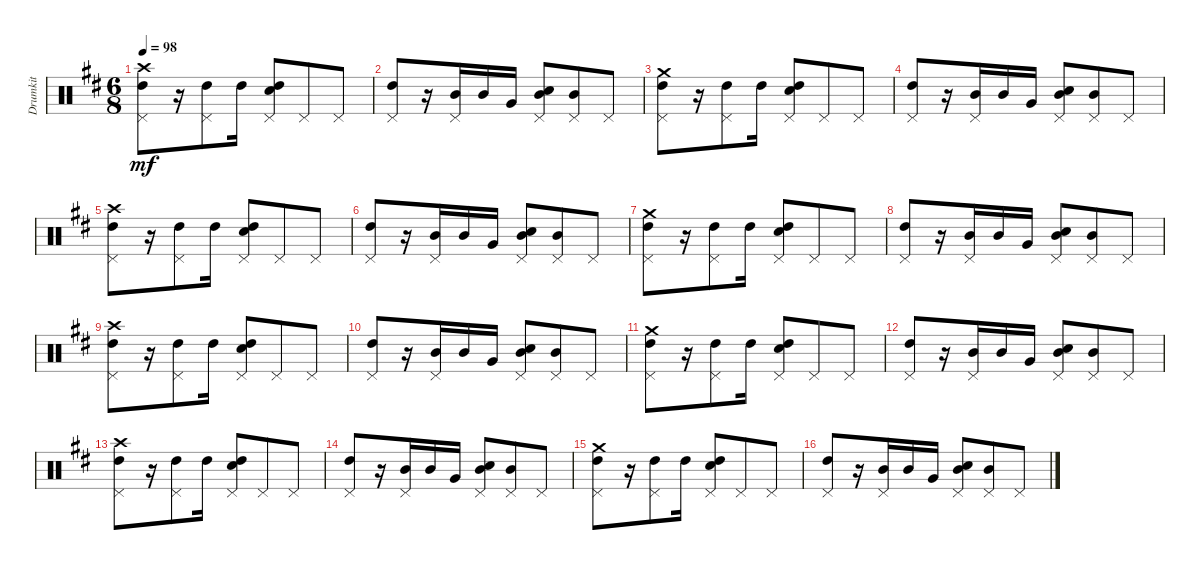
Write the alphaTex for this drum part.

\track ("Drumkit" "Drumkit") {instrument percussion}
\staff {score}
\articulation defaults
\ts (6 8)
\tempo 98
\clef neutral
\ks d
("High Tom (hit)" "Pedal Hi-Hat (hit)" "Crash high (hit)").8{dy mf} r.16 ("High Tom (hit)" "Pedal Hi-Hat (hit)").8 "High Tom (hit)".16 ("High Tom (hit)" "Snare (hit) 2" "Pedal Hi-Hat (hit)").8 "Pedal Hi-Hat (hit)".8 "Pedal Hi-Hat (hit)".8 |
("High Tom (hit)" "Pedal Hi-Hat (hit)").8 r.16 ("Mid Tom (hit)" "Pedal Hi-Hat (hit)").16 "Mid Tom (hit)".16 "Very Low Tom (hit)".16 ("Mid Tom (hit)" "Snare (hit) 2" "Pedal Hi-Hat (hit)").8 ("Mid Tom (hit)" "Pedal Hi-Hat (hit)").8 "Pedal Hi-Hat (hit)".8 |
("High Tom (hit)" "Pedal Hi-Hat (hit)" "Crash medium (hit)").8 r.16 ("High Tom (hit)" "Pedal Hi-Hat (hit)").8 "High Tom (hit)".16 ("High Tom (hit)" "Snare (hit) 2" "Pedal Hi-Hat (hit)").8 "Pedal Hi-Hat (hit)".8 "Pedal Hi-Hat (hit)".8 |
("High Tom (hit)" "Pedal Hi-Hat (hit)").8 r.16 ("Mid Tom (hit)" "Pedal Hi-Hat (hit)").16 "Mid Tom (hit)".16 "Very Low Tom (hit)".16 ("Mid Tom (hit)" "Snare (hit) 2" "Pedal Hi-Hat (hit)").8 ("Mid Tom (hit)" "Pedal Hi-Hat (hit)").8 "Pedal Hi-Hat (hit)".8 |
("High Tom (hit)" "Pedal Hi-Hat (hit)" "Crash high (hit)").8 r.16 ("High Tom (hit)" "Pedal Hi-Hat (hit)").8 "High Tom (hit)".16 ("High Tom (hit)" "Snare (hit) 2" "Pedal Hi-Hat (hit)").8 "Pedal Hi-Hat (hit)".8 "Pedal Hi-Hat (hit)".8 |
("High Tom (hit)" "Pedal Hi-Hat (hit)").8 r.16 ("Mid Tom (hit)" "Pedal Hi-Hat (hit)").16 "Mid Tom (hit)".16 "Very Low Tom (hit)".16 ("Mid Tom (hit)" "Snare (hit) 2" "Pedal Hi-Hat (hit)").8 ("Mid Tom (hit)" "Pedal Hi-Hat (hit)").8 "Pedal Hi-Hat (hit)".8 |
("High Tom (hit)" "Pedal Hi-Hat (hit)" "Crash medium (hit)").8 r.16 ("High Tom (hit)" "Pedal Hi-Hat (hit)").8 "High Tom (hit)".16 ("High Tom (hit)" "Snare (hit) 2" "Pedal Hi-Hat (hit)").8 "Pedal Hi-Hat (hit)".8 "Pedal Hi-Hat (hit)".8 |
("High Tom (hit)" "Pedal Hi-Hat (hit)").8 r.16 ("Mid Tom (hit)" "Pedal Hi-Hat (hit)").16 "Mid Tom (hit)".16 "Very Low Tom (hit)".16 ("Mid Tom (hit)" "Snare (hit) 2" "Pedal Hi-Hat (hit)").8 ("Mid Tom (hit)" "Pedal Hi-Hat (hit)").8 "Pedal Hi-Hat (hit)".8 |
("High Tom (hit)" "Pedal Hi-Hat (hit)" "Crash high (hit)").8 r.16 ("High Tom (hit)" "Pedal Hi-Hat (hit)").8 "High Tom (hit)".16 ("High Tom (hit)" "Snare (hit) 2" "Pedal Hi-Hat (hit)").8 "Pedal Hi-Hat (hit)".8 "Pedal Hi-Hat (hit)".8 |
("High Tom (hit)" "Pedal Hi-Hat (hit)").8 r.16 ("Mid Tom (hit)" "Pedal Hi-Hat (hit)").16 "Mid Tom (hit)".16 "Very Low Tom (hit)".16 ("Mid Tom (hit)" "Snare (hit) 2" "Pedal Hi-Hat (hit)").8 ("Mid Tom (hit)" "Pedal Hi-Hat (hit)").8 "Pedal Hi-Hat (hit)".8 |
("High Tom (hit)" "Pedal Hi-Hat (hit)" "Crash medium (hit)").8 r.16 ("High Tom (hit)" "Pedal Hi-Hat (hit)").8 "High Tom (hit)".16 ("High Tom (hit)" "Snare (hit) 2" "Pedal Hi-Hat (hit)").8 "Pedal Hi-Hat (hit)".8 "Pedal Hi-Hat (hit)".8 |
("High Tom (hit)" "Pedal Hi-Hat (hit)").8 r.16 ("Mid Tom (hit)" "Pedal Hi-Hat (hit)").16 "Mid Tom (hit)".16 "Very Low Tom (hit)".16 ("Mid Tom (hit)" "Snare (hit) 2" "Pedal Hi-Hat (hit)").8 ("Mid Tom (hit)" "Pedal Hi-Hat (hit)").8 "Pedal Hi-Hat (hit)".8 |
("High Tom (hit)" "Pedal Hi-Hat (hit)" "Crash high (hit)").8 r.16 ("High Tom (hit)" "Pedal Hi-Hat (hit)").8 "High Tom (hit)".16 ("High Tom (hit)" "Snare (hit) 2" "Pedal Hi-Hat (hit)").8 "Pedal Hi-Hat (hit)".8 "Pedal Hi-Hat (hit)".8 |
("High Tom (hit)" "Pedal Hi-Hat (hit)").8 r.16 ("Mid Tom (hit)" "Pedal Hi-Hat (hit)").16 "Mid Tom (hit)".16 "Very Low Tom (hit)".16 ("Mid Tom (hit)" "Snare (hit) 2" "Pedal Hi-Hat (hit)").8 ("Mid Tom (hit)" "Pedal Hi-Hat (hit)").8 "Pedal Hi-Hat (hit)".8 |
("High Tom (hit)" "Pedal Hi-Hat (hit)" "Crash medium (hit)").8 r.16 ("High Tom (hit)" "Pedal Hi-Hat (hit)").8 "High Tom (hit)".16 ("High Tom (hit)" "Snare (hit) 2" "Pedal Hi-Hat (hit)").8 "Pedal Hi-Hat (hit)".8 "Pedal Hi-Hat (hit)".8 |
("High Tom (hit)" "Pedal Hi-Hat (hit)").8 r.16 ("Mid Tom (hit)" "Pedal Hi-Hat (hit)").16 "Mid Tom (hit)".16 "Very Low Tom (hit)".16 ("Mid Tom (hit)" "Snare (hit) 2" "Pedal Hi-Hat (hit)").8 ("Mid Tom (hit)" "Pedal Hi-Hat (hit)").8 "Pedal Hi-Hat (hit)".8
